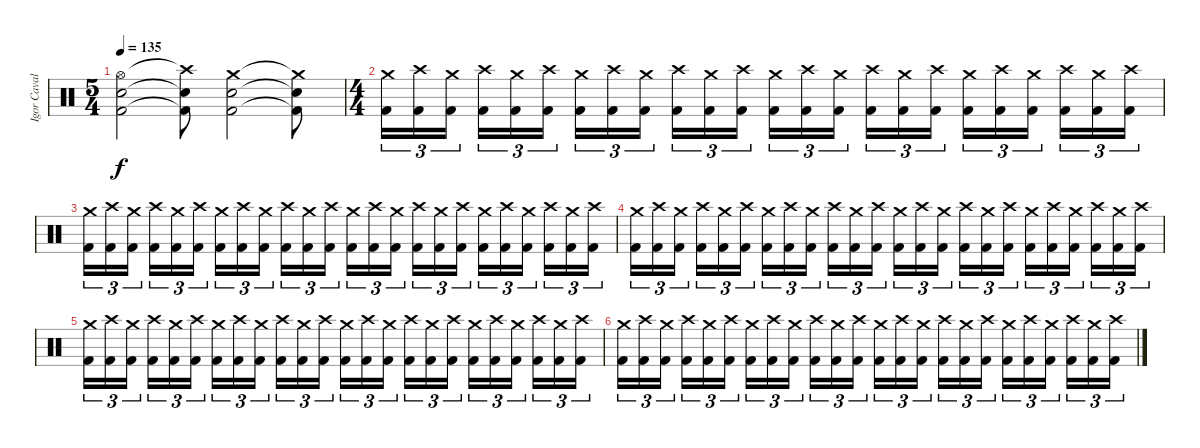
\track ("Igor Cavalera" "Igor Caval") {instrument percussion}
\staff {score}
\articulation defaults
\ts (5 4)
\tempo 135
\clef neutral
\ks c
("Hi-Hat (open)" "Snare (hit) 2" "Kick (hit) 2").2{dy f volume 16} ("Crash high (hit)"{t} "Snare (hit) 2"{t} "Kick (hit) 2"{t}).8 ("Crash medium (hit)" "Snare (hit) 2" "Kick (hit) 2").2 ("Crash medium (hit)"{t} "Snare (hit) 2"{t} "Kick (hit) 2"{t}).8 |
\ts (4 4)
("Crash medium (hit)" "Kick (hit) 2").16{tu (3 2) volume 15} ("Crash high (hit)" "Kick (hit) 2").16{tu (3 2)} ("Crash medium (hit)" "Kick (hit) 2").16{tu (3 2)} ("Crash high (hit)" "Kick (hit) 2").16{tu (3 2)} ("Crash medium (hit)" "Kick (hit) 2").16{tu (3 2)} ("Crash high (hit)" "Kick (hit) 2").16{tu (3 2)} ("Crash medium (hit)" "Kick (hit) 2").16{tu (3 2) volume 14} ("Crash high (hit)" "Kick (hit) 2").16{tu (3 2)} ("Crash medium (hit)" "Kick (hit) 2").16{tu (3 2)} ("Crash high (hit)" "Kick (hit) 2").16{tu (3 2)} ("Crash medium (hit)" "Kick (hit) 2").16{tu (3 2)} ("Crash high (hit)" "Kick (hit) 2").16{tu (3 2)} ("Crash medium (hit)" "Kick (hit) 2").16{tu (3 2) volume 13} ("Crash high (hit)" "Kick (hit) 2").16{tu (3 2)} ("Crash medium (hit)" "Kick (hit) 2").16{tu (3 2)} ("Crash high (hit)" "Kick (hit) 2").16{tu (3 2)} ("Crash medium (hit)" "Kick (hit) 2").16{tu (3 2)} ("Crash high (hit)" "Kick (hit) 2").16{tu (3 2)} ("Crash medium (hit)" "Kick (hit) 2").16{tu (3 2) volume 12} ("Crash high (hit)" "Kick (hit) 2").16{tu (3 2)} ("Crash medium (hit)" "Kick (hit) 2").16{tu (3 2)} ("Crash high (hit)" "Kick (hit) 2").16{tu (3 2)} ("Crash medium (hit)" "Kick (hit) 2").16{tu (3 2)} ("Crash high (hit)" "Kick (hit) 2").16{tu (3 2)} |
("Crash medium (hit)" "Kick (hit) 2").16{tu (3 2) volume 11} ("Crash high (hit)" "Kick (hit) 2").16{tu (3 2)} ("Crash medium (hit)" "Kick (hit) 2").16{tu (3 2)} ("Crash high (hit)" "Kick (hit) 2").16{tu (3 2)} ("Crash medium (hit)" "Kick (hit) 2").16{tu (3 2)} ("Crash high (hit)" "Kick (hit) 2").16{tu (3 2)} ("Crash medium (hit)" "Kick (hit) 2").16{tu (3 2) volume 10} ("Crash high (hit)" "Kick (hit) 2").16{tu (3 2)} ("Crash medium (hit)" "Kick (hit) 2").16{tu (3 2)} ("Crash high (hit)" "Kick (hit) 2").16{tu (3 2)} ("Crash medium (hit)" "Kick (hit) 2").16{tu (3 2)} ("Crash high (hit)" "Kick (hit) 2").16{tu (3 2)} ("Crash medium (hit)" "Kick (hit) 2").16{tu (3 2) volume 9} ("Crash high (hit)" "Kick (hit) 2").16{tu (3 2)} ("Crash medium (hit)" "Kick (hit) 2").16{tu (3 2)} ("Crash high (hit)" "Kick (hit) 2").16{tu (3 2)} ("Crash medium (hit)" "Kick (hit) 2").16{tu (3 2)} ("Crash high (hit)" "Kick (hit) 2").16{tu (3 2)} ("Crash medium (hit)" "Kick (hit) 2").16{tu (3 2) volume 8} ("Crash high (hit)" "Kick (hit) 2").16{tu (3 2)} ("Crash medium (hit)" "Kick (hit) 2").16{tu (3 2)} ("Crash high (hit)" "Kick (hit) 2").16{tu (3 2)} ("Crash medium (hit)" "Kick (hit) 2").16{tu (3 2)} ("Crash high (hit)" "Kick (hit) 2").16{tu (3 2)} |
("Crash medium (hit)" "Kick (hit) 2").16{tu (3 2) volume 7} ("Crash high (hit)" "Kick (hit) 2").16{tu (3 2)} ("Crash medium (hit)" "Kick (hit) 2").16{tu (3 2)} ("Crash high (hit)" "Kick (hit) 2").16{tu (3 2)} ("Crash medium (hit)" "Kick (hit) 2").16{tu (3 2)} ("Crash high (hit)" "Kick (hit) 2").16{tu (3 2)} ("Crash medium (hit)" "Kick (hit) 2").16{tu (3 2) volume 6} ("Crash high (hit)" "Kick (hit) 2").16{tu (3 2)} ("Crash medium (hit)" "Kick (hit) 2").16{tu (3 2)} ("Crash high (hit)" "Kick (hit) 2").16{tu (3 2)} ("Crash medium (hit)" "Kick (hit) 2").16{tu (3 2)} ("Crash high (hit)" "Kick (hit) 2").16{tu (3 2)} ("Crash medium (hit)" "Kick (hit) 2").16{tu (3 2) volume 5} ("Crash high (hit)" "Kick (hit) 2").16{tu (3 2)} ("Crash medium (hit)" "Kick (hit) 2").16{tu (3 2)} ("Crash high (hit)" "Kick (hit) 2").16{tu (3 2)} ("Crash medium (hit)" "Kick (hit) 2").16{tu (3 2)} ("Crash high (hit)" "Kick (hit) 2").16{tu (3 2)} ("Crash medium (hit)" "Kick (hit) 2").16{tu (3 2) volume 4} ("Crash high (hit)" "Kick (hit) 2").16{tu (3 2)} ("Crash medium (hit)" "Kick (hit) 2").16{tu (3 2)} ("Crash high (hit)" "Kick (hit) 2").16{tu (3 2)} ("Crash medium (hit)" "Kick (hit) 2").16{tu (3 2)} ("Crash high (hit)" "Kick (hit) 2").16{tu (3 2)} |
("Crash medium (hit)" "Kick (hit) 2").16{tu (3 2) volume 3} ("Crash high (hit)" "Kick (hit) 2").16{tu (3 2)} ("Crash medium (hit)" "Kick (hit) 2").16{tu (3 2)} ("Crash high (hit)" "Kick (hit) 2").16{tu (3 2)} ("Crash medium (hit)" "Kick (hit) 2").16{tu (3 2)} ("Crash high (hit)" "Kick (hit) 2").16{tu (3 2)} ("Crash medium (hit)" "Kick (hit) 2").16{tu (3 2)} ("Crash high (hit)" "Kick (hit) 2").16{tu (3 2)} ("Crash medium (hit)" "Kick (hit) 2").16{tu (3 2)} ("Crash high (hit)" "Kick (hit) 2").16{tu (3 2)} ("Crash medium (hit)" "Kick (hit) 2").16{tu (3 2)} ("Crash high (hit)" "Kick (hit) 2").16{tu (3 2)} ("Crash medium (hit)" "Kick (hit) 2").16{tu (3 2) volume 2} ("Crash high (hit)" "Kick (hit) 2").16{tu (3 2)} ("Crash medium (hit)" "Kick (hit) 2").16{tu (3 2)} ("Crash high (hit)" "Kick (hit) 2").16{tu (3 2)} ("Crash medium (hit)" "Kick (hit) 2").16{tu (3 2)} ("Crash high (hit)" "Kick (hit) 2").16{tu (3 2)} ("Crash medium (hit)" "Kick (hit) 2").16{tu (3 2)} ("Crash high (hit)" "Kick (hit) 2").16{tu (3 2)} ("Crash medium (hit)" "Kick (hit) 2").16{tu (3 2)} ("Crash high (hit)" "Kick (hit) 2").16{tu (3 2)} ("Crash medium (hit)" "Kick (hit) 2").16{tu (3 2)} ("Crash high (hit)" "Kick (hit) 2").16{tu (3 2)} |
("Crash medium (hit)" "Kick (hit) 2").16{tu (3 2) volume 1} ("Crash high (hit)" "Kick (hit) 2").16{tu (3 2)} ("Crash medium (hit)" "Kick (hit) 2").16{tu (3 2)} ("Crash high (hit)" "Kick (hit) 2").16{tu (3 2)} ("Crash medium (hit)" "Kick (hit) 2").16{tu (3 2)} ("Crash high (hit)" "Kick (hit) 2").16{tu (3 2)} ("Crash medium (hit)" "Kick (hit) 2").16{tu (3 2)} ("Crash high (hit)" "Kick (hit) 2").16{tu (3 2)} ("Crash medium (hit)" "Kick (hit) 2").16{tu (3 2)} ("Crash high (hit)" "Kick (hit) 2").16{tu (3 2)} ("Crash medium (hit)" "Kick (hit) 2").16{tu (3 2)} ("Crash high (hit)" "Kick (hit) 2").16{tu (3 2)} ("Crash medium (hit)" "Kick (hit) 2").16{tu (3 2)} ("Crash high (hit)" "Kick (hit) 2").16{tu (3 2)} ("Crash medium (hit)" "Kick (hit) 2").16{tu (3 2)} ("Crash high (hit)" "Kick (hit) 2").16{tu (3 2)} ("Crash medium (hit)" "Kick (hit) 2").16{tu (3 2)} ("Crash high (hit)" "Kick (hit) 2").16{tu (3 2)} ("Crash medium (hit)" "Kick (hit) 2").16{tu (3 2)} ("Crash high (hit)" "Kick (hit) 2").16{tu (3 2)} ("Crash medium (hit)" "Kick (hit) 2").16{tu (3 2)} ("Crash high (hit)" "Kick (hit) 2").16{tu (3 2)} ("Crash medium (hit)" "Kick (hit) 2").16{tu (3 2)} ("Crash high (hit)" "Kick (hit) 2").16{tu (3 2)}
